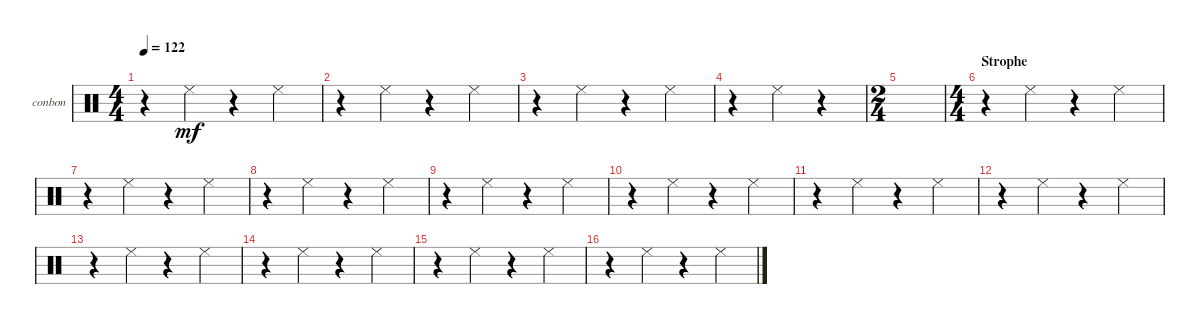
\defaultSystemsLayout 4
\bracketExtendMode groupsimilarinstruments
\firstSystemTrackNameOrientation horizontal
\otherSystemsTrackNameOrientation horizontal
\track ("Bongos N Congas" "conbon") {instrument percussion}
\staff {score}
\articulation defaults
\ts (4 4)
\tempo 122
\clef neutral
\ks c
r.4{dy mf} "Cowbell low (tip)".4 r.4 "Cowbell low (tip)".4 |
r.4 "Cowbell low (tip)".4 r.4 "Cowbell low (tip)".4 |
r.4 "Cowbell low (tip)".4 r.4 "Cowbell low (tip)".4 |
r.4 "Cowbell low (tip)".4 r.4 |
\ts (2 4)
|
\ts (4 4)
\section ("" "Strophe")
r.4 "Cowbell low (tip)".4 r.4 "Cowbell low (tip)".4 |
r.4 "Cowbell low (tip)".4 r.4 "Cowbell low (tip)".4 |
r.4 "Cowbell low (tip)".4 r.4 "Cowbell low (tip)".4 |
r.4 "Cowbell low (tip)".4 r.4 "Cowbell low (tip)".4 |
r.4 "Cowbell low (tip)".4 r.4 "Cowbell low (tip)".4 |
r.4 "Cowbell low (tip)".4 r.4 "Cowbell low (tip)".4 |
r.4 "Cowbell low (tip)".4 r.4 "Cowbell low (tip)".4 |
r.4 "Cowbell low (tip)".4 r.4 "Cowbell low (tip)".4 |
r.4 "Cowbell low (tip)".4 r.4 "Cowbell low (tip)".4 |
r.4 "Cowbell low (tip)".4 r.4 "Cowbell low (tip)".4 |
r.4 "Cowbell low (tip)".4 r.4 "Cowbell low (tip)".4
